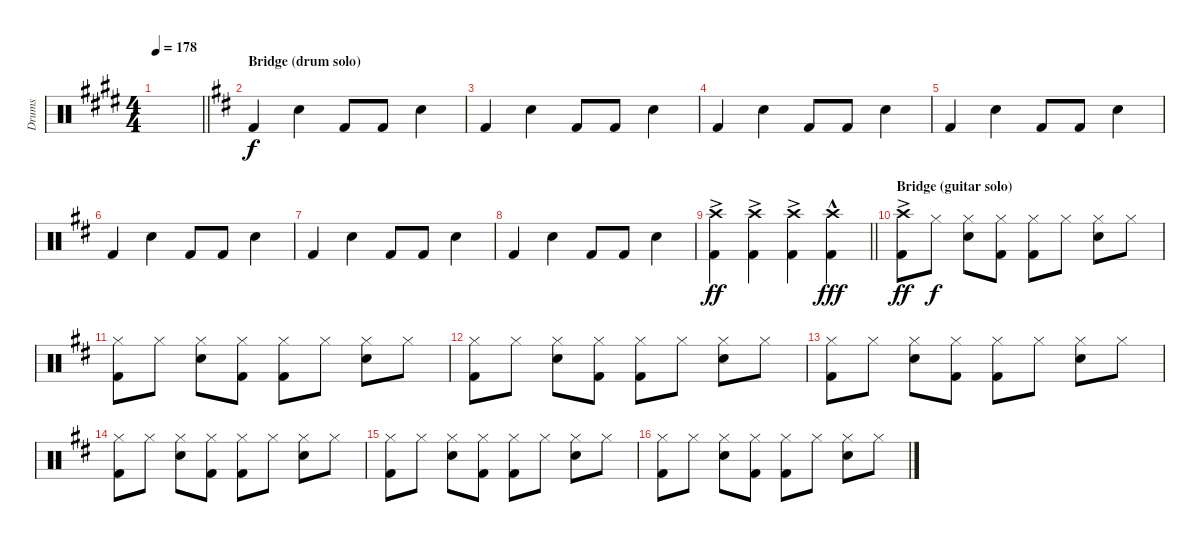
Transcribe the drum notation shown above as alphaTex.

\track ("Drums" "Drums") {instrument percussion}
\staff {score}
\articulation defaults
\ts (4 4)
\tempo 178
\clef neutral
\barLineRight lightlight
\ks e
|
\section ("" "Bridge (drum solo)")
\ks d "Kick (hit) 2".4{dy f} "Electric Snare (hit)".4 "Kick (hit) 2".8 "Kick (hit) 2".8 "Electric Snare (hit)".4
|
"Kick (hit) 2".4 "Electric Snare (hit)".4 "Kick (hit) 2".8 "Kick (hit) 2".8 "Electric Snare (hit)".4 |
"Kick (hit) 2".4 "Electric Snare (hit)".4 "Kick (hit) 2".8 "Kick (hit) 2".8 "Electric Snare (hit)".4 |
"Kick (hit) 2".4 "Electric Snare (hit)".4 "Kick (hit) 2".8 "Kick (hit) 2".8 "Electric Snare (hit)".4 |
"Kick (hit) 2".4 "Electric Snare (hit)".4 "Kick (hit) 2".8 "Kick (hit) 2".8 "Electric Snare (hit)".4 |
"Kick (hit) 2".4 "Electric Snare (hit)".4 "Kick (hit) 2".8 "Kick (hit) 2".8 "Electric Snare (hit)".4 |
"Kick (hit) 2".4 "Electric Snare (hit)".4 "Kick (hit) 2".8 "Kick (hit) 2".8 "Electric Snare (hit)".4 |
\barLineRight lightlight
("Crash high (hit)"{ac} "Kick (hit) 2").4{dy ff} ("Crash high (hit)"{ac} "Kick (hit) 2").4 ("Crash high (hit)"{ac} "Kick (hit) 2").4 ("Crash high (hit)"{hac} "Kick (hit) 2").4{dy fff} |
\section ("" "Bridge (guitar solo)")
("Crash high (hit)"{ac} "Kick (hit) 2").8{dy ff} "Hi-Hat (closed)".8{dy f} ("Hi-Hat (closed)" "Electric Snare (hit)").8 ("Hi-Hat (closed)" "Kick (hit) 2").8 ("Hi-Hat (closed)" "Kick (hit) 2").8 "Hi-Hat (closed)".8 ("Hi-Hat (closed)" "Electric Snare (hit)").8 "Hi-Hat (closed)".8 |
("Hi-Hat (closed)" "Kick (hit) 2").8 "Hi-Hat (closed)".8 ("Hi-Hat (closed)" "Electric Snare (hit)").8 ("Hi-Hat (closed)" "Kick (hit) 2").8 ("Hi-Hat (closed)" "Kick (hit) 2").8 "Hi-Hat (closed)".8 ("Hi-Hat (closed)" "Electric Snare (hit)").8 "Hi-Hat (closed)".8 |
("Hi-Hat (closed)" "Kick (hit) 2").8 "Hi-Hat (closed)".8 ("Hi-Hat (closed)" "Electric Snare (hit)").8 ("Hi-Hat (closed)" "Kick (hit) 2").8 ("Hi-Hat (closed)" "Kick (hit) 2").8 "Hi-Hat (closed)".8 ("Hi-Hat (closed)" "Electric Snare (hit)").8 "Hi-Hat (closed)".8 |
("Hi-Hat (closed)" "Kick (hit) 2").8 "Hi-Hat (closed)".8 ("Hi-Hat (closed)" "Electric Snare (hit)").8 ("Hi-Hat (closed)" "Kick (hit) 2").8 ("Hi-Hat (closed)" "Kick (hit) 2").8 "Hi-Hat (closed)".8 ("Hi-Hat (closed)" "Electric Snare (hit)").8 "Hi-Hat (closed)".8 |
("Hi-Hat (closed)" "Kick (hit) 2").8 "Hi-Hat (closed)".8 ("Hi-Hat (closed)" "Electric Snare (hit)").8 ("Hi-Hat (closed)" "Kick (hit) 2").8 ("Hi-Hat (closed)" "Kick (hit) 2").8 "Hi-Hat (closed)".8 ("Hi-Hat (closed)" "Electric Snare (hit)").8 "Hi-Hat (closed)".8 |
("Hi-Hat (closed)" "Kick (hit) 2").8 "Hi-Hat (closed)".8 ("Hi-Hat (closed)" "Electric Snare (hit)").8 ("Hi-Hat (closed)" "Kick (hit) 2").8 ("Hi-Hat (closed)" "Kick (hit) 2").8 "Hi-Hat (closed)".8 ("Hi-Hat (closed)" "Electric Snare (hit)").8 "Hi-Hat (closed)".8 |
("Hi-Hat (closed)" "Kick (hit) 2").8 "Hi-Hat (closed)".8 ("Hi-Hat (closed)" "Electric Snare (hit)").8 ("Hi-Hat (closed)" "Kick (hit) 2").8 ("Hi-Hat (closed)" "Kick (hit) 2").8 "Hi-Hat (closed)".8 ("Hi-Hat (closed)" "Electric Snare (hit)").8 "Hi-Hat (closed)".8
